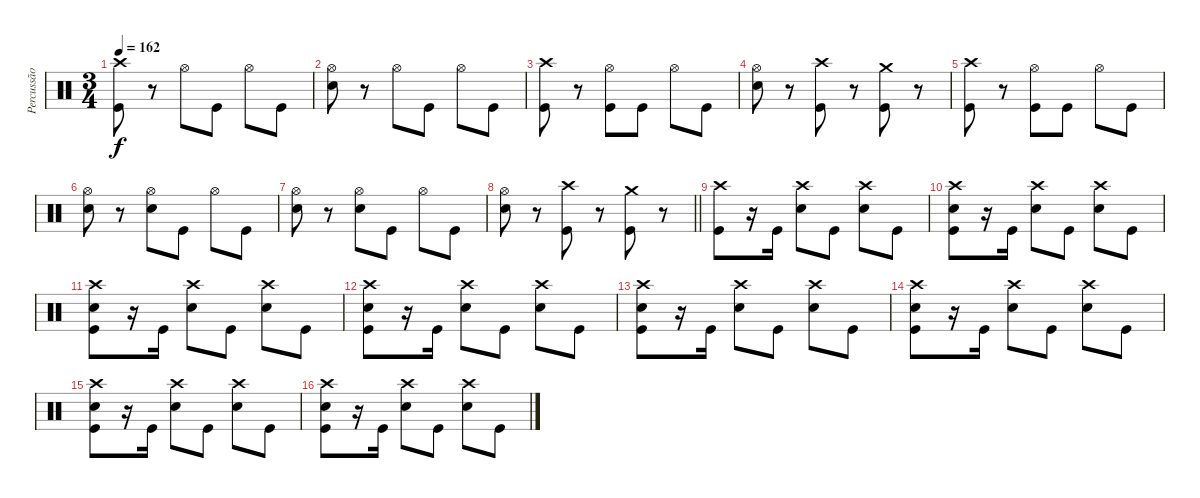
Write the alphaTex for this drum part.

\track ("Percussão" "Percussão") {instrument percussion}
\staff {score}
\articulation defaults
\ts (3 4)
\tempo 162
\clef neutral
\ks c
("Crash high (hit)" "Kick (hit)").8{dy f} r.8 "Hi-Hat (open)".8 "Kick (hit)".8 "Hi-Hat (open)".8 "Kick (hit)".8 |
("Hi-Hat (open)" "Snare (hit) 2").8 r.8 "Hi-Hat (open)".8 "Kick (hit)".8 "Hi-Hat (open)".8 "Kick (hit)".8 |
("Crash high (hit)" "Kick (hit)").8 r.8 ("Hi-Hat (open)" "Kick (hit)").8 "Kick (hit)".8 "Hi-Hat (open)".8 "Kick (hit)".8 |
("Hi-Hat (open)" "Snare (hit) 2").8 r.8 ("Crash high (hit)" "Kick (hit)").8 r.8 ("Crash medium (hit)" "Kick (hit)").8 r.8 |
("Crash high (hit)" "Kick (hit)").8 r.8 ("Hi-Hat (open)" "Kick (hit)").8 "Kick (hit)".8 "Hi-Hat (open)".8 "Kick (hit)".8 |
("Hi-Hat (open)" "Snare (hit) 2").8 r.8 ("Hi-Hat (open)" "Snare (hit) 2").8 "Kick (hit)".8 "Hi-Hat (open)".8 "Kick (hit)".8 |
("Hi-Hat (open)" "Snare (hit) 2").8 r.8 ("Hi-Hat (open)" "Snare (hit) 2").8 "Kick (hit)".8 "Hi-Hat (open)".8 "Kick (hit)".8 |
\barLineRight lightlight
("Hi-Hat (open)" "Snare (hit) 2").8 r.8 ("Crash high (hit)" "Kick (hit)").8 r.8 ("Crash medium (hit)" "Kick (hit)").8 r.8 |
("Crash high (hit)" "Kick (hit)").8 r.16 "Kick (hit)".16 ("Crash high (hit)" "Snare (hit) 2").8 "Kick (hit)".8 ("Crash high (hit)" "Snare (hit) 2").8 "Kick (hit)".8 |
("Crash high (hit)" "Snare (hit) 2" "Kick (hit)").8 r.16 "Kick (hit)".16 ("Crash high (hit)" "Snare (hit) 2").8 "Kick (hit)".8 ("Crash high (hit)" "Snare (hit) 2").8 "Kick (hit)".8 |
("Crash high (hit)" "Snare (hit) 2" "Kick (hit)").8 r.16 "Kick (hit)".16 ("Crash high (hit)" "Snare (hit) 2").8 "Kick (hit)".8 ("Crash high (hit)" "Snare (hit) 2").8 "Kick (hit)".8 |
("Crash high (hit)" "Snare (hit) 2" "Kick (hit)").8 r.16 "Kick (hit)".16 ("Crash high (hit)" "Snare (hit) 2").8 "Kick (hit)".8 ("Crash high (hit)" "Snare (hit) 2").8 "Kick (hit)".8 |
("Crash high (hit)" "Snare (hit) 2" "Kick (hit)").8 r.16 "Kick (hit)".16 ("Crash high (hit)" "Snare (hit) 2").8 "Kick (hit)".8 ("Crash high (hit)" "Snare (hit) 2").8 "Kick (hit)".8 |
("Crash high (hit)" "Snare (hit) 2" "Kick (hit)").8 r.16 "Kick (hit)".16 ("Crash high (hit)" "Snare (hit) 2").8 "Kick (hit)".8 ("Crash high (hit)" "Snare (hit) 2").8 "Kick (hit)".8 |
("Crash high (hit)" "Snare (hit) 2" "Kick (hit)").8 r.16 "Kick (hit)".16 ("Crash high (hit)" "Snare (hit) 2").8 "Kick (hit)".8 ("Crash high (hit)" "Snare (hit) 2").8 "Kick (hit)".8 |
("Crash high (hit)" "Snare (hit) 2" "Kick (hit)").8 r.16 "Kick (hit)".16 ("Crash high (hit)" "Snare (hit) 2").8 "Kick (hit)".8 ("Crash high (hit)" "Snare (hit) 2").8 "Kick (hit)".8
